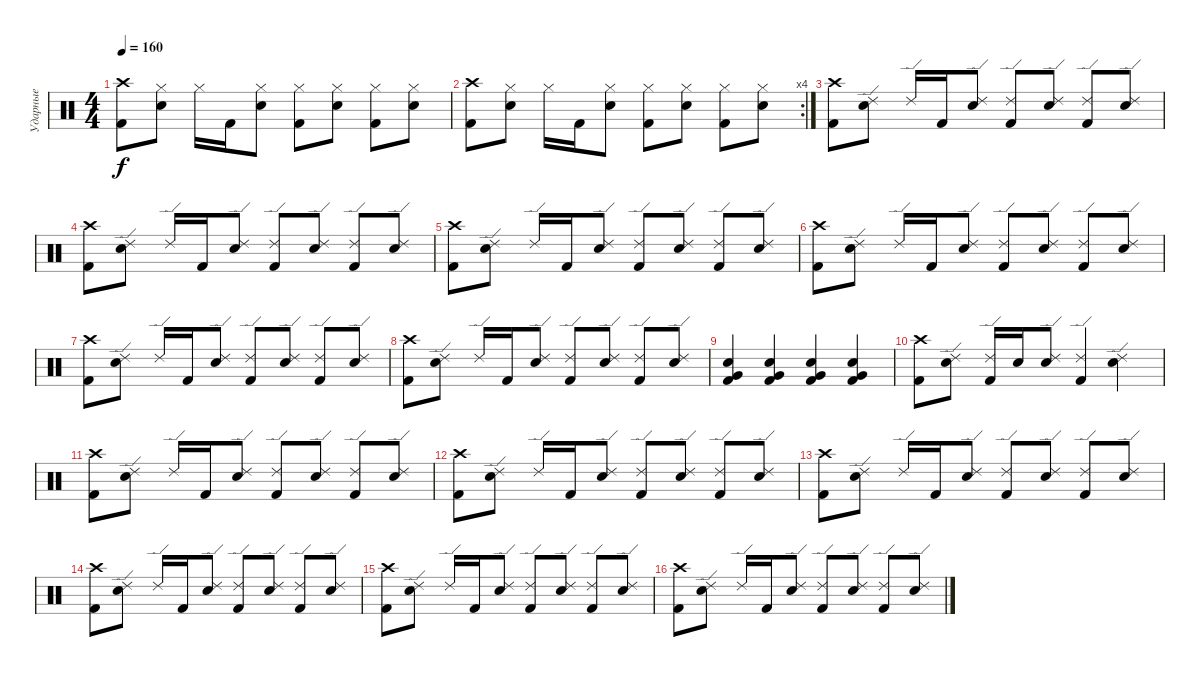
\track ("Ударные" "Ударные") {instrument percussion}
\staff {score}
\articulation defaults
\ts (4 4)
\tempo 160
\clef neutral
\ks c
("Kick (hit) 2" "Crash high (hit)").8{dy f} ("Electric Snare (hit)" "Hi-Hat (closed)").8 "Hi-Hat (closed)".16 "Kick (hit) 2".16 ("Electric Snare (hit)" "Hi-Hat (closed)").8 ("Kick (hit) 2" "Hi-Hat (closed)").8 ("Electric Snare (hit)" "Hi-Hat (closed)").8 ("Kick (hit) 2" "Hi-Hat (closed)").8 ("Electric Snare (hit)" "Hi-Hat (closed)").8 |
\rc 4
("Kick (hit) 2" "Crash high (hit)").8 ("Electric Snare (hit)" "Hi-Hat (closed)").8 "Hi-Hat (closed)".16 "Kick (hit) 2".16 ("Electric Snare (hit)" "Hi-Hat (closed)").8 ("Kick (hit) 2" "Hi-Hat (closed)").8 ("Electric Snare (hit)" "Hi-Hat (closed)").8 ("Kick (hit) 2" "Hi-Hat (closed)").8 ("Electric Snare (hit)" "Hi-Hat (closed)").8 |
("Kick (hit) 2" "Crash high (hit)").8 ("Electric Snare (hit)" "Ride (edge) 2").8 "Ride (edge) 2".16 "Kick (hit) 2".16 ("Electric Snare (hit)" "Ride (edge) 2").8 ("Kick (hit) 2" "Ride (edge) 2").8 ("Electric Snare (hit)" "Ride (edge) 2").8 ("Kick (hit) 2" "Ride (edge) 2").8 ("Electric Snare (hit)" "Ride (edge) 2").8 |
("Kick (hit) 2" "Crash high (hit)").8 ("Electric Snare (hit)" "Ride (edge) 2").8 "Ride (edge) 2".16 "Kick (hit) 2".16 ("Electric Snare (hit)" "Ride (edge) 2").8 ("Kick (hit) 2" "Ride (edge) 2").8 ("Electric Snare (hit)" "Ride (edge) 2").8 ("Kick (hit) 2" "Ride (edge) 2").8 ("Electric Snare (hit)" "Ride (edge) 2").8 |
("Kick (hit) 2" "Crash high (hit)").8 ("Electric Snare (hit)" "Ride (edge) 2").8 "Ride (edge) 2".16 "Kick (hit) 2".16 ("Electric Snare (hit)" "Ride (edge) 2").8 ("Kick (hit) 2" "Ride (edge) 2").8 ("Electric Snare (hit)" "Ride (edge) 2").8 ("Kick (hit) 2" "Ride (edge) 2").8 ("Electric Snare (hit)" "Ride (edge) 2").8 |
("Kick (hit) 2" "Crash high (hit)").8 ("Electric Snare (hit)" "Ride (edge) 2").8 "Ride (edge) 2".16 "Kick (hit) 2".16 ("Electric Snare (hit)" "Ride (edge) 2").8 ("Kick (hit) 2" "Ride (edge) 2").8 ("Electric Snare (hit)" "Ride (edge) 2").8 ("Kick (hit) 2" "Ride (edge) 2").8 ("Electric Snare (hit)" "Ride (edge) 2").8 |
("Kick (hit) 2" "Crash high (hit)").8 ("Electric Snare (hit)" "Ride (edge) 2").8 "Ride (edge) 2".16 "Kick (hit) 2".16 ("Electric Snare (hit)" "Ride (edge) 2").8 ("Kick (hit) 2" "Ride (edge) 2").8 ("Electric Snare (hit)" "Ride (edge) 2").8 ("Kick (hit) 2" "Ride (edge) 2").8 ("Electric Snare (hit)" "Ride (edge) 2").8 |
("Kick (hit) 2" "Crash high (hit)").8 ("Electric Snare (hit)" "Ride (edge) 2").8 "Ride (edge) 2".16 "Kick (hit) 2".16 ("Electric Snare (hit)" "Ride (edge) 2").8 ("Kick (hit) 2" "Ride (edge) 2").8 ("Electric Snare (hit)" "Ride (edge) 2").8 ("Kick (hit) 2" "Ride (edge) 2").8 ("Electric Snare (hit)" "Ride (edge) 2").8 |
("Kick (hit) 2" "Electric Snare (hit)" "Very Low Tom (hit)").4 ("Kick (hit) 2" "Electric Snare (hit)" "Very Low Tom (hit)").4 ("Kick (hit) 2" "Electric Snare (hit)" "Very Low Tom (hit)").4 ("Kick (hit) 2" "Electric Snare (hit)" "Very Low Tom (hit)").4 |
("Kick (hit) 2" "Crash high (hit)").8 ("Electric Snare (hit)" "Ride (edge) 2").8 ("Kick (hit) 2" "Ride (edge) 2").16 "Electric Snare (hit)".16 ("Electric Snare (hit)" "Ride (edge) 2").8 ("Kick (hit) 2" "Ride (edge) 2").4 ("Electric Snare (hit)" "Ride (edge) 2").4 |
("Kick (hit) 2" "Crash high (hit)").8 ("Electric Snare (hit)" "Ride (edge) 2").8 "Ride (edge) 2".16 "Kick (hit) 2".16 ("Electric Snare (hit)" "Ride (edge) 2").8 ("Kick (hit) 2" "Ride (edge) 2").8 ("Electric Snare (hit)" "Ride (edge) 2").8 ("Kick (hit) 2" "Ride (edge) 2").8 ("Electric Snare (hit)" "Ride (edge) 2").8 |
("Kick (hit) 2" "Crash high (hit)").8 ("Electric Snare (hit)" "Ride (edge) 2").8 "Ride (edge) 2".16 "Kick (hit) 2".16 ("Electric Snare (hit)" "Ride (edge) 2").8 ("Kick (hit) 2" "Ride (edge) 2").8 ("Electric Snare (hit)" "Ride (edge) 2").8 ("Kick (hit) 2" "Ride (edge) 2").8 ("Electric Snare (hit)" "Ride (edge) 2").8 |
("Kick (hit) 2" "Crash high (hit)").8 ("Electric Snare (hit)" "Ride (edge) 2").8 "Ride (edge) 2".16 "Kick (hit) 2".16 ("Electric Snare (hit)" "Ride (edge) 2").8 ("Kick (hit) 2" "Ride (edge) 2").8 ("Electric Snare (hit)" "Ride (edge) 2").8 ("Kick (hit) 2" "Ride (edge) 2").8 ("Electric Snare (hit)" "Ride (edge) 2").8 |
("Kick (hit) 2" "Crash high (hit)").8 ("Electric Snare (hit)" "Ride (edge) 2").8 "Ride (edge) 2".16 "Kick (hit) 2".16 ("Electric Snare (hit)" "Ride (edge) 2").8 ("Kick (hit) 2" "Ride (edge) 2").8 ("Electric Snare (hit)" "Ride (edge) 2").8 ("Kick (hit) 2" "Ride (edge) 2").8 ("Electric Snare (hit)" "Ride (edge) 2").8 |
("Kick (hit) 2" "Crash high (hit)").8 ("Electric Snare (hit)" "Ride (edge) 2").8 "Ride (edge) 2".16 "Kick (hit) 2".16 ("Electric Snare (hit)" "Ride (edge) 2").8 ("Kick (hit) 2" "Ride (edge) 2").8 ("Electric Snare (hit)" "Ride (edge) 2").8 ("Kick (hit) 2" "Ride (edge) 2").8 ("Electric Snare (hit)" "Ride (edge) 2").8 |
("Kick (hit) 2" "Crash high (hit)").8 ("Electric Snare (hit)" "Ride (edge) 2").8 "Ride (edge) 2".16 "Kick (hit) 2".16 ("Electric Snare (hit)" "Ride (edge) 2").8 ("Kick (hit) 2" "Ride (edge) 2").8 ("Electric Snare (hit)" "Ride (edge) 2").8 ("Kick (hit) 2" "Ride (edge) 2").8 ("Electric Snare (hit)" "Ride (edge) 2").8
